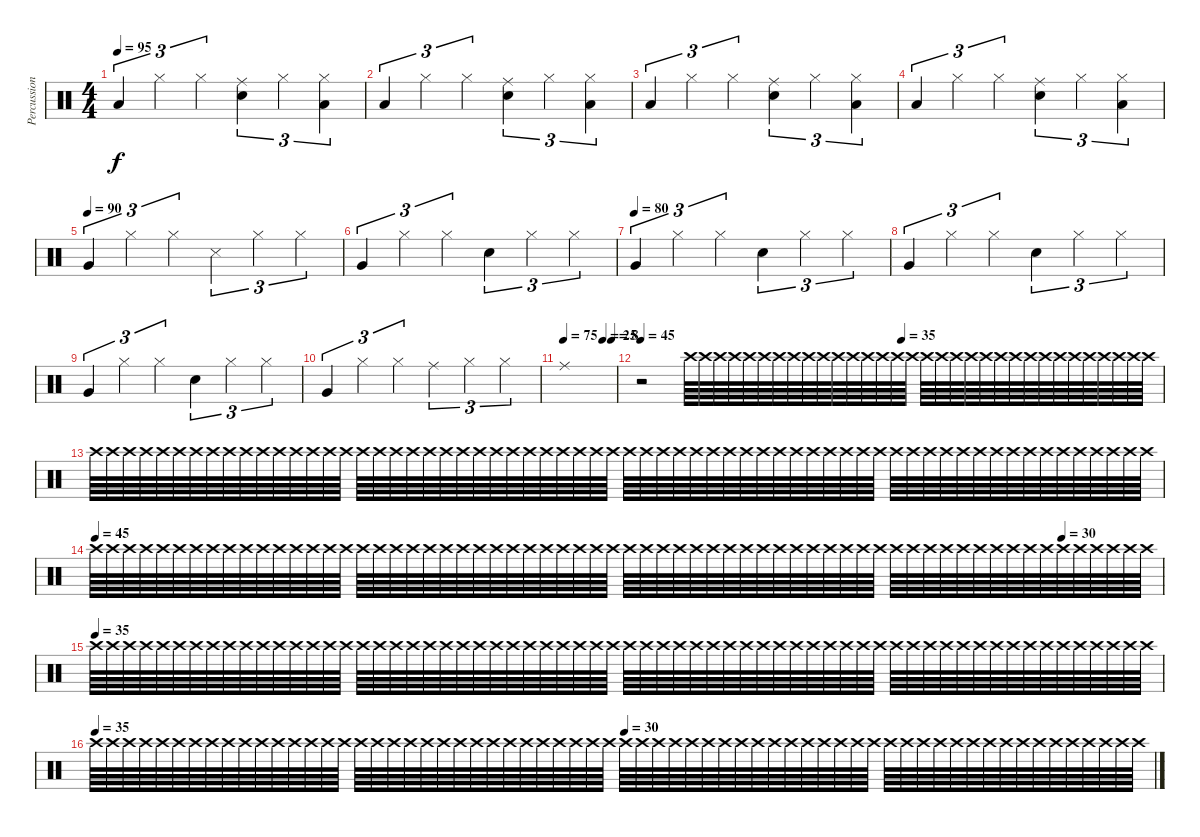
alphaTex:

\track ("Percussion" "Percussion") {instrument percussion}
\staff {score}
\articulation defaults
\ts (4 4)
\tempo 95
\clef neutral
\ks c "Low Floor Tom (hit)".4{tu (3 2) dy f} "Hi-Hat (closed)".4{tu (3 2)} "Hi-Hat (closed)".4{tu (3 2)}
("Electric Snare (hit)" "Ride (middle)").4{tu (3 2)} "Hi-Hat (closed)".4{tu (3 2)} ("Hi-Hat (closed)" "Low Floor Tom (hit)").4{tu (3 2)} |
"Low Floor Tom (hit)".4{tu (3 2)} "Hi-Hat (closed)".4{tu (3 2)} "Hi-Hat (closed)".4{tu (3 2)} ("Electric Snare (hit)" "Ride (middle)").4{tu (3 2)} "Hi-Hat (closed)".4{tu (3 2)} ("Hi-Hat (closed)" "Low Floor Tom (hit)").4{tu (3 2)} |
"Low Floor Tom (hit)".4{tu (3 2)} "Hi-Hat (closed)".4{tu (3 2)} "Hi-Hat (closed)".4{tu (3 2)} ("Electric Snare (hit)" "Ride (middle)").4{tu (3 2)} "Hi-Hat (closed)".4{tu (3 2)} ("Hi-Hat (closed)" "Low Floor Tom (hit)").4{tu (3 2)} |
"Low Floor Tom (hit)".4{tu (3 2)} "Hi-Hat (closed)".4{tu (3 2)} "Hi-Hat (closed)".4{tu (3 2)} ("Electric Snare (hit)" "Ride (middle)").4{tu (3 2)} "Hi-Hat (closed)".4{tu (3 2)} ("Hi-Hat (closed)" "Low Floor Tom (hit)").4{tu (3 2)} |
\tempo (90)
"Very Low Tom (hit)".4{tu (3 2)} "Hi-Hat (closed)".4{tu (3 2)} "Hi-Hat (closed)".4{tu (3 2)} "Snare (side stick) 3".4{tu (3 2)} "Hi-Hat (closed)".4{tu (3 2)} "Hi-Hat (closed)".4{tu (3 2)} |
"Very Low Tom (hit)".4{tu (3 2)} "Hi-Hat (closed)".4{tu (3 2)} "Hi-Hat (closed)".4{tu (3 2)} "Hand Clap (hit)".4{tu (3 2)} "Hi-Hat (closed)".4{tu (3 2)} "Hi-Hat (closed)".4{tu (3 2)} |
\tempo (80)
"Very Low Tom (hit)".4{tu (3 2)} "Hi-Hat (closed)".4{tu (3 2)} "Hi-Hat (closed)".4{tu (3 2)} "Hand Clap (hit)".4{tu (3 2)} "Hi-Hat (closed)".4{tu (3 2)} "Hi-Hat (closed)".4{tu (3 2)} |
"Very Low Tom (hit)".4{tu (3 2)} "Hi-Hat (closed)".4{tu (3 2)} "Hi-Hat (closed)".4{tu (3 2)} "Hand Clap (hit)".4{tu (3 2)} "Hi-Hat (closed)".4{tu (3 2)} "Hi-Hat (closed)".4{tu (3 2)} |
"Very Low Tom (hit)".4{tu (3 2)} "Hi-Hat (closed)".4{tu (3 2)} "Hi-Hat (closed)".4{tu (3 2)} "Hand Clap (hit)".4{tu (3 2)} "Hi-Hat (closed)".4{tu (3 2)} "Hi-Hat (closed)".4{tu (3 2)} |
"Very Low Tom (hit)".4{tu (3 2)} "Hi-Hat (closed)".4{tu (3 2)} "Hi-Hat (closed)".4{tu (3 2)} "Ride (middle)".4{tu (3 2)} "Hi-Hat (closed)".4{tu (3 2)} "Hi-Hat (closed)".4{tu (3 2)} |
\tempo 75
\tempo (25 0.75)
\tempo (8 0.9166666666666666)
"Ride (middle)".1 |
\tempo 45
\tempo (35 0.5)
r.2 "Crash high (hit)".64{volume 1} "Crash high (hit)".64{volume 2} "Crash high (hit)".64 "Crash high (hit)".64 "Crash high (hit)".64 "Crash high (hit)".64 "Crash high (hit)".64 "Crash high (hit)".64 "Crash high (hit)".64 "Crash high (hit)".64 "Crash high (hit)".64 "Crash high (hit)".64 "Crash high (hit)".64 "Crash high (hit)".64 "Crash high (hit)".64 "Crash high (hit)".64 "Crash high (hit)".64 "Crash high (hit)".64 "Crash high (hit)".64 "Crash high (hit)".64 "Crash high (hit)".64 "Crash high (hit)".64 "Crash high (hit)".64 "Crash high (hit)".64 "Crash high (hit)".64 "Crash high (hit)".64 "Crash high (hit)".64 "Crash high (hit)".64 "Crash high (hit)".64 "Crash high (hit)".64 "Crash high (hit)".64 "Crash high (hit)".64 |
"Crash high (hit)".64 "Crash high (hit)".64 "Crash high (hit)".64 "Crash high (hit)".64 "Crash high (hit)".64 "Crash high (hit)".64 "Crash high (hit)".64 "Crash high (hit)".64 "Crash high (hit)".64 "Crash high (hit)".64 "Crash high (hit)".64 "Crash high (hit)".64 "Crash high (hit)".64 "Crash high (hit)".64 "Crash high (hit)".64 "Crash high (hit)".64 "Crash high (hit)".64 "Crash high (hit)".64 "Crash high (hit)".64 "Crash high (hit)".64 "Crash high (hit)".64 "Crash high (hit)".64 "Crash high (hit)".64 "Crash high (hit)".64 "Crash high (hit)".64 "Crash high (hit)".64 "Crash high (hit)".64 "Crash high (hit)".64 "Crash high (hit)".64 "Crash high (hit)".64 "Crash high (hit)".64 "Crash high (hit)".64 "Crash high (hit)".64{volume 1} "Crash high (hit)".64 "Crash high (hit)".64 "Crash high (hit)".64 "Crash high (hit)".64 "Crash high (hit)".64 "Crash high (hit)".64 "Crash high (hit)".64 "Crash high (hit)".64 "Crash high (hit)".64 "Crash high (hit)".64 "Crash high (hit)".64 "Crash high (hit)".64 "Crash high (hit)".64 "Crash high (hit)".64 "Crash high (hit)".64 "Crash high (hit)".64 "Crash high (hit)".64 "Crash high (hit)".64 "Crash high (hit)".64 "Crash high (hit)".64 "Crash high (hit)".64 "Crash high (hit)".64 "Crash high (hit)".64 "Crash high (hit)".64 "Crash high (hit)".64 "Crash high (hit)".64 "Crash high (hit)".64 "Crash high (hit)".64 "Crash high (hit)".64 "Crash high (hit)".64 "Crash high (hit)".64 |
\tempo 45
\tempo (30 0.90625)
"Crash high (hit)".64{volume 2} "Crash high (hit)".64 "Crash high (hit)".64 "Crash high (hit)".64 "Crash high (hit)".64 "Crash high (hit)".64 "Crash high (hit)".64 "Crash high (hit)".64 "Crash high (hit)".64 "Crash high (hit)".64 "Crash high (hit)".64 "Crash high (hit)".64 "Crash high (hit)".64 "Crash high (hit)".64 "Crash high (hit)".64 "Crash high (hit)".64 "Crash high (hit)".64 "Crash high (hit)".64 "Crash high (hit)".64 "Crash high (hit)".64 "Crash high (hit)".64 "Crash high (hit)".64 "Crash high (hit)".64 "Crash high (hit)".64 "Crash high (hit)".64 "Crash high (hit)".64 "Crash high (hit)".64 "Crash high (hit)".64 "Crash high (hit)".64 "Crash high (hit)".64 "Crash high (hit)".64 "Crash high (hit)".64 "Crash high (hit)".64{volume 1} "Crash high (hit)".64 "Crash high (hit)".64 "Crash high (hit)".64 "Crash high (hit)".64 "Crash high (hit)".64 "Crash high (hit)".64 "Crash high (hit)".64 "Crash high (hit)".64 "Crash high (hit)".64 "Crash high (hit)".64 "Crash high (hit)".64 "Crash high (hit)".64 "Crash high (hit)".64 "Crash high (hit)".64 "Crash high (hit)".64 "Crash high (hit)".64{volume 2} "Crash high (hit)".64 "Crash high (hit)".64 "Crash high (hit)".64 "Crash high (hit)".64 "Crash high (hit)".64 "Crash high (hit)".64 "Crash high (hit)".64 "Crash high (hit)".64 "Crash high (hit)".64 "Crash high (hit)".64 "Crash high (hit)".64 "Crash high (hit)".64 "Crash high (hit)".64 "Crash high (hit)".64 "Crash high (hit)".64 |
\tempo (35)
"Crash high (hit)".64{volume 1} "Crash high (hit)".64 "Crash high (hit)".64 "Crash high (hit)".64 "Crash high (hit)".64 "Crash high (hit)".64 "Crash high (hit)".64 "Crash high (hit)".64 "Crash high (hit)".64 "Crash high (hit)".64 "Crash high (hit)".64 "Crash high (hit)".64 "Crash high (hit)".64 "Crash high (hit)".64 "Crash high (hit)".64 "Crash high (hit)".64 "Crash high (hit)".64 "Crash high (hit)".64 "Crash high (hit)".64 "Crash high (hit)".64 "Crash high (hit)".64 "Crash high (hit)".64 "Crash high (hit)".64 "Crash high (hit)".64 "Crash high (hit)".64 "Crash high (hit)".64 "Crash high (hit)".64 "Crash high (hit)".64 "Crash high (hit)".64 "Crash high (hit)".64 "Crash high (hit)".64 "Crash high (hit)".64 "Crash high (hit)".64{volume 1} "Crash high (hit)".64 "Crash high (hit)".64 "Crash high (hit)".64 "Crash high (hit)".64 "Crash high (hit)".64 "Crash high (hit)".64 "Crash high (hit)".64 "Crash high (hit)".64 "Crash high (hit)".64 "Crash high (hit)".64 "Crash high (hit)".64 "Crash high (hit)".64 "Crash high (hit)".64 "Crash high (hit)".64 "Crash high (hit)".64 "Crash high (hit)".64 "Crash high (hit)".64 "Crash high (hit)".64 "Crash high (hit)".64 "Crash high (hit)".64 "Crash high (hit)".64 "Crash high (hit)".64 "Crash high (hit)".64 "Crash high (hit)".64 "Crash high (hit)".64 "Crash high (hit)".64 "Crash high (hit)".64 "Crash high (hit)".64 "Crash high (hit)".64 "Crash high (hit)".64 "Crash high (hit)".64 |
\tempo 35
\tempo (30 0.5)
"Crash high (hit)".64 "Crash high (hit)".64 "Crash high (hit)".64 "Crash high (hit)".64 "Crash high (hit)".64 "Crash high (hit)".64 "Crash high (hit)".64 "Crash high (hit)".64 "Crash high (hit)".64 "Crash high (hit)".64 "Crash high (hit)".64 "Crash high (hit)".64 "Crash high (hit)".64 "Crash high (hit)".64 "Crash high (hit)".64 "Crash high (hit)".64 "Crash high (hit)".64 "Crash high (hit)".64 "Crash high (hit)".64 "Crash high (hit)".64 "Crash high (hit)".64 "Crash high (hit)".64 "Crash high (hit)".64 "Crash high (hit)".64 "Crash high (hit)".64 "Crash high (hit)".64 "Crash high (hit)".64 "Crash high (hit)".64 "Crash high (hit)".64 "Crash high (hit)".64 "Crash high (hit)".64 "Crash high (hit)".64 "Crash high (hit)".64{volume 2} "Crash high (hit)".64 "Crash high (hit)".64 "Crash high (hit)".64 "Crash high (hit)".64 "Crash high (hit)".64 "Crash high (hit)".64 "Crash high (hit)".64 "Crash high (hit)".64 "Crash high (hit)".64 "Crash high (hit)".64 "Crash high (hit)".64 "Crash high (hit)".64 "Crash high (hit)".64 "Crash high (hit)".64 "Crash high (hit)".64 "Crash high (hit)".64{volume 1} "Crash high (hit)".64 "Crash high (hit)".64 "Crash high (hit)".64 "Crash high (hit)".64 "Crash high (hit)".64 "Crash high (hit)".64 "Crash high (hit)".64 "Crash high (hit)".64 "Crash high (hit)".64 "Crash high (hit)".64 "Crash high (hit)".64 "Crash high (hit)".64 "Crash high (hit)".64 "Crash high (hit)".64 "Crash high (hit)".64
